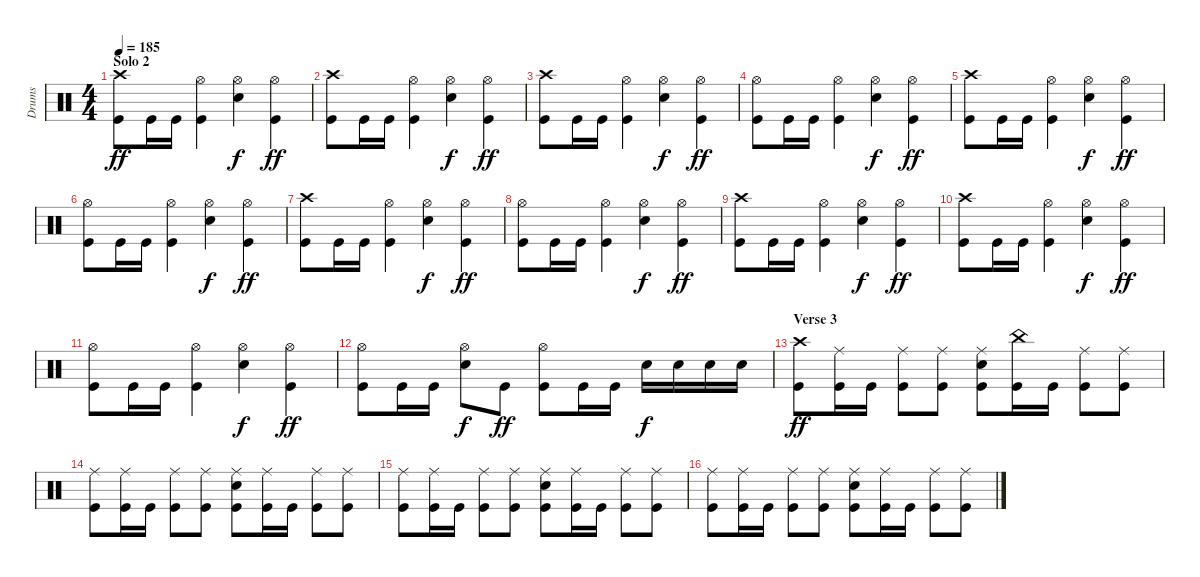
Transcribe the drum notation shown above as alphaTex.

\track ("Drums" "Drums") {instrument percussion}
\staff {score}
\articulation defaults
\ts (4 4)
\section ("" "Solo 2")
\tempo 185
\clef neutral
\ks c
("Crash high (hit)" "Kick (hit)").8{dy ff} "Kick (hit)".16 "Kick (hit)".16 ("Hi-Hat (open)" "Kick (hit)").4 ("Hi-Hat (open)" "Snare (hit) 2").4{dy f} ("Hi-Hat (open)" "Kick (hit)").4{dy ff} |
("Crash high (hit)" "Kick (hit)").8 "Kick (hit)".16 "Kick (hit)".16 ("Hi-Hat (open)" "Kick (hit)").4 ("Hi-Hat (open)" "Snare (hit) 2").4{dy f} ("Hi-Hat (open)" "Kick (hit)").4{dy ff} |
("Crash high (hit)" "Kick (hit)").8 "Kick (hit)".16 "Kick (hit)".16 ("Hi-Hat (open)" "Kick (hit)").4 ("Hi-Hat (open)" "Snare (hit) 2").4{dy f} ("Hi-Hat (open)" "Kick (hit)").4{dy ff} |
("Hi-Hat (open)" "Kick (hit)").8 "Kick (hit)".16 "Kick (hit)".16 ("Hi-Hat (open)" "Kick (hit)").4 ("Hi-Hat (open)" "Snare (hit) 2").4{dy f} ("Hi-Hat (open)" "Kick (hit)").4{dy ff} |
("Crash high (hit)" "Kick (hit)").8 "Kick (hit)".16 "Kick (hit)".16 ("Hi-Hat (open)" "Kick (hit)").4 ("Hi-Hat (open)" "Snare (hit) 2").4{dy f} ("Hi-Hat (open)" "Kick (hit)").4{dy ff} |
("Hi-Hat (open)" "Kick (hit)").8 "Kick (hit)".16 "Kick (hit)".16 ("Hi-Hat (open)" "Kick (hit)").4 ("Hi-Hat (open)" "Snare (hit) 2").4{dy f} ("Hi-Hat (open)" "Kick (hit)").4{dy ff} |
("Crash high (hit)" "Kick (hit)").8 "Kick (hit)".16 "Kick (hit)".16 ("Hi-Hat (open)" "Kick (hit)").4 ("Hi-Hat (open)" "Snare (hit) 2").4{dy f} ("Hi-Hat (open)" "Kick (hit)").4{dy ff} |
("Hi-Hat (open)" "Kick (hit)").8 "Kick (hit)".16 "Kick (hit)".16 ("Hi-Hat (open)" "Kick (hit)").4 ("Hi-Hat (open)" "Snare (hit) 2").4{dy f} ("Hi-Hat (open)" "Kick (hit)").4{dy ff} |
("Crash high (hit)" "Kick (hit)").8 "Kick (hit)".16 "Kick (hit)".16 ("Hi-Hat (open)" "Kick (hit)").4 ("Hi-Hat (open)" "Snare (hit) 2").4{dy f} ("Hi-Hat (open)" "Kick (hit)").4{dy ff} |
("Crash high (hit)" "Kick (hit)").8 "Kick (hit)".16 "Kick (hit)".16 ("Hi-Hat (open)" "Kick (hit)").4 ("Hi-Hat (open)" "Snare (hit) 2").4{dy f} ("Hi-Hat (open)" "Kick (hit)").4{dy ff} |
("Hi-Hat (open)" "Kick (hit)").8 "Kick (hit)".16 "Kick (hit)".16 ("Hi-Hat (open)" "Kick (hit)").4 ("Hi-Hat (open)" "Snare (hit) 2").4{dy f} ("Hi-Hat (open)" "Kick (hit)").4{dy ff} |
("Hi-Hat (open)" "Kick (hit)").8 "Kick (hit)".16 "Kick (hit)".16 ("Hi-Hat (open)" "Snare (hit) 2").8{dy f} "Kick (hit)".8{dy ff} ("Hi-Hat (open)" "Kick (hit)").8 "Kick (hit)".16 "Kick (hit)".16 "Snare (hit) 2".16{dy f} "Snare (hit) 2".16 "Snare (hit) 2".16 "Snare (hit) 2".16 |
\section ("" "Verse 3")
("Crash high (hit)" "Kick (hit)").8{dy ff} ("Ride (middle)" "Kick (hit)").16 "Kick (hit)".16 ("Ride (middle)" "Kick (hit)").8 ("Ride (middle)" "Kick (hit)").8 ("Ride (middle)" "Snare (hit) 2" "Kick (hit)").8 ("China (hit)" "Kick (hit)").16 "Kick (hit)".16 ("Ride (middle)" "Kick (hit)").8 ("Ride (middle)" "Kick (hit)").8 |
("Ride (middle)" "Kick (hit)").8 ("Ride (middle)" "Kick (hit)").16 "Kick (hit)".16 ("Ride (middle)" "Kick (hit)").8 ("Ride (middle)" "Kick (hit)").8 ("Ride (middle)" "Snare (hit) 2" "Kick (hit)").8 ("Ride (middle)" "Kick (hit)").16 "Kick (hit)".16 ("Ride (middle)" "Kick (hit)").8 ("Ride (middle)" "Kick (hit)").8 |
("Ride (middle)" "Kick (hit)").8 ("Ride (middle)" "Kick (hit)").16 "Kick (hit)".16 ("Ride (middle)" "Kick (hit)").8 ("Ride (middle)" "Kick (hit)").8 ("Ride (middle)" "Snare (hit) 2" "Kick (hit)").8 ("Ride (middle)" "Kick (hit)").16 "Kick (hit)".16 ("Ride (middle)" "Kick (hit)").8 ("Ride (middle)" "Kick (hit)").8 |
("Ride (middle)" "Kick (hit)").8 ("Ride (middle)" "Kick (hit)").16 "Kick (hit)".16 ("Ride (middle)" "Kick (hit)").8 ("Ride (middle)" "Kick (hit)").8 ("Ride (middle)" "Snare (hit) 2" "Kick (hit)").8 ("Ride (middle)" "Kick (hit)").16 "Kick (hit)".16 ("Ride (middle)" "Kick (hit)").8 ("Ride (middle)" "Kick (hit)").8
